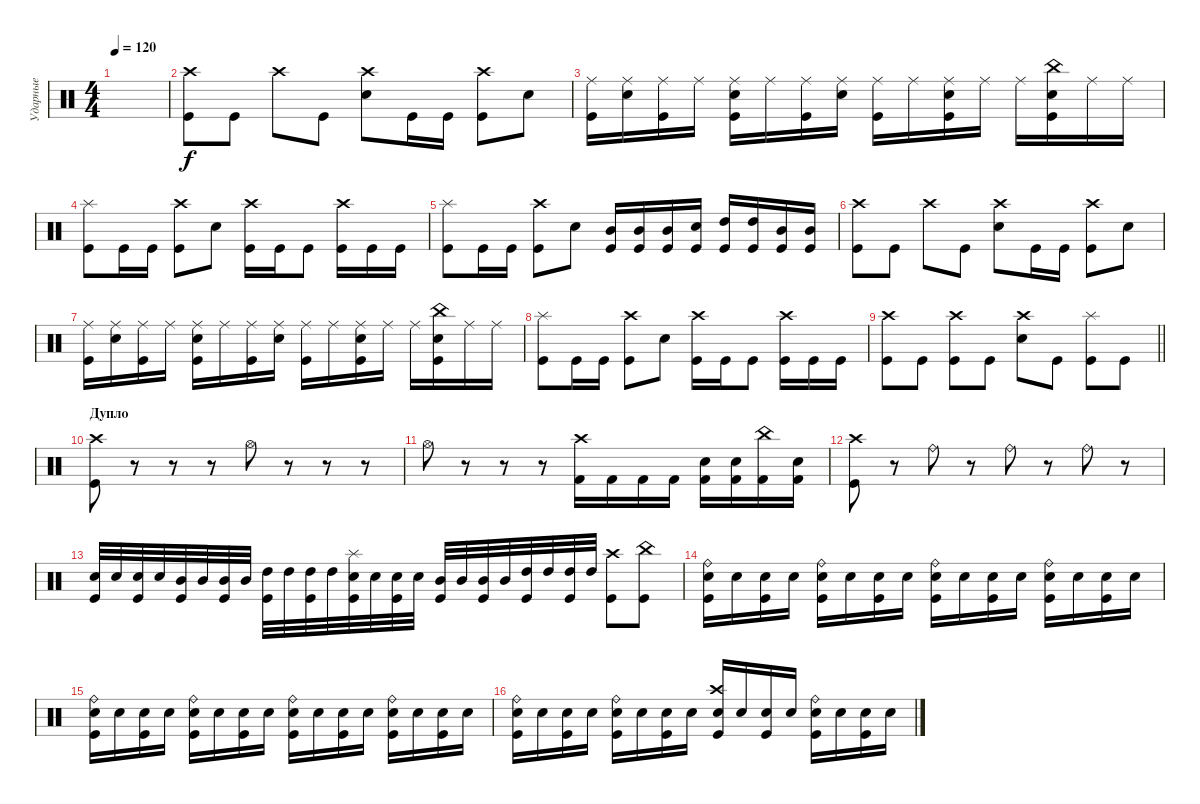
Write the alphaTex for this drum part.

\track ("Ударные" "Ударные") {instrument percussion}
\staff {score}
\articulation defaults
\ts (4 4)
\tempo 120
\clef neutral
\ks c
|
("Kick (hit)" "Crash high (hit)").8 "Kick (hit)".8 "Crash high (hit)".8 "Kick (hit)".8 ("Snare (hit) 2" "Crash high (hit)").8 "Kick (hit)".16 "Kick (hit)".16 ("Kick (hit)" "Crash high (hit)").8 "Snare (hit) 2".8 |
("Ride (middle)" "Kick (hit)").16 ("Snare (hit) 2" "Ride (middle)").16 ("Ride (middle)" "Kick (hit)").16 "Ride (middle)".16 ("Snare (hit) 2" "Ride (middle)" "Kick (hit)").16 "Ride (middle)".16 ("Ride (middle)" "Kick (hit)").16 ("Snare (hit) 2" "Ride (middle)").16 ("Ride (middle)" "Kick (hit)").16 "Ride (middle)".16 ("Snare (hit) 2" "Ride (middle)" "Kick (hit)").16 "Ride (middle)".16 "Ride (middle)".16 ("Snare (hit) 2" "China (hit)" "Kick (hit)").16 "Ride (middle)".16 "Ride (middle)".16 |
("Kick (hit)" "Splash (hit)").8 "Kick (hit)".16 "Kick (hit)".16 ("Kick (hit)" "Crash high (hit)").8 "Snare (hit) 2".8 ("Kick (hit)" "Crash high (hit)").16 "Kick (hit)".16 "Kick (hit)".8 ("Kick (hit)" "Crash high (hit)").16 "Kick (hit)".16 "Kick (hit)".16 |
("Kick (hit)" "Splash (hit)").8 "Kick (hit)".16 "Kick (hit)".16 ("Kick (hit)" "Crash high (hit)").8 "Snare (hit) 2".8 ("Kick (hit)" "Mid Tom (hit)").16 ("Kick (hit)" "Mid Tom (hit)").16 ("Kick (hit)" "Mid Tom (hit)").16 ("Kick (hit)" "Snare (hit) 2").16 ("Kick (hit)" "High Tom (hit)").16 ("Kick (hit)" "High Tom (hit)").16 ("Kick (hit)" "Mid Tom (hit)").16 ("Kick (hit)" "Mid Tom (hit)").16 |
("Kick (hit)" "Crash high (hit)").8 "Kick (hit)".8 "Crash high (hit)".8 "Kick (hit)".8 ("Snare (hit) 2" "Crash high (hit)").8 "Kick (hit)".16 "Kick (hit)".16 ("Kick (hit)" "Crash high (hit)").8 "Snare (hit) 2".8 |
("Ride (middle)" "Kick (hit)").16 ("Snare (hit) 2" "Ride (middle)").16 ("Ride (middle)" "Kick (hit)").16 "Ride (middle)".16 ("Snare (hit) 2" "Ride (middle)" "Kick (hit)").16 "Ride (middle)".16 ("Ride (middle)" "Kick (hit)").16 ("Snare (hit) 2" "Ride (middle)").16 ("Ride (middle)" "Kick (hit)").16 "Ride (middle)".16 ("Snare (hit) 2" "Ride (middle)" "Kick (hit)").16 "Ride (middle)".16 "Ride (middle)".16 ("Snare (hit) 2" "China (hit)" "Kick (hit)").16 "Ride (middle)".16 "Ride (middle)".16 |
("Kick (hit)" "Splash (hit)").8 "Kick (hit)".16 "Kick (hit)".16 ("Kick (hit)" "Crash high (hit)").8 "Snare (hit) 2".8 ("Kick (hit)" "Crash high (hit)").16 "Kick (hit)".16 "Kick (hit)".8 ("Kick (hit)" "Crash high (hit)").16 "Kick (hit)".16 "Kick (hit)".16 |
\barLineRight lightlight
("Kick (hit)" "Crash high (hit)").8 "Kick (hit)".8 ("Kick (hit)" "Crash high (hit)").8 "Kick (hit)".8 ("Snare (hit) 2" "Crash high (hit)").8 "Kick (hit)".8 ("Kick (hit)" "Splash (hit)").8 "Kick (hit)".8 |
\section ("" "Дупло")
("Crash high (hit)" "Kick (hit)").8 r.8 r.8 r.8 "Hi-Hat (open)".8 r.8 r.8 r.8 |
"Hi-Hat (open)".8 r.8 r.8 r.8 ("Kick (hit) 2" "Crash high (hit)").16 "Kick (hit) 2".16 "Kick (hit) 2".16 "Kick (hit) 2".16 ("Kick (hit) 2" "Snare (hit) 2").16 ("Kick (hit) 2" "Snare (hit) 2").16 ("Kick (hit) 2" "China (hit)").16 ("Kick (hit) 2" "Snare (hit) 2").16 |
("Crash high (hit)" "Kick (hit)").8 r.8 "Ride (bell)".8 r.8 "Ride (bell)".8 r.8 "Ride (bell)".8 r.8 |
("Kick (hit)" "Snare (hit) 2").32 "Snare (hit) 2".32 ("Kick (hit)" "Snare (hit) 2").32 "Snare (hit) 2".32 ("Kick (hit)" "Mid Tom (hit)").32 "Mid Tom (hit)".32 ("Kick (hit)" "Mid Tom (hit)").32 "Mid Tom (hit)".32 ("Kick (hit)" "High Tom (hit)").32 "High Tom (hit)".32 ("Kick (hit)" "High Tom (hit)").32 "High Tom (hit)".32 ("Kick (hit)" "Snare (hit) 2" "Splash (hit)").32 "Snare (hit) 2".32 ("Kick (hit)" "Snare (hit) 2").32 "Snare (hit) 2".32 ("Kick (hit)" "Mid Tom (hit)").32 "Mid Tom (hit)".32 ("Kick (hit)" "Mid Tom (hit)").32 "Mid Tom (hit)".32 ("Kick (hit)" "High Tom (hit)").32 "High Tom (hit)".32 ("Kick (hit)" "High Tom (hit)").32 "High Tom (hit)".32 ("Kick (hit)" "Crash high (hit)").8 ("Kick (hit)" "China (hit)").8 |
("Ride (bell)" "Snare (hit) 2" "Kick (hit)").16 "Snare (hit) 2".16 ("Snare (hit) 2" "Kick (hit)").16 "Snare (hit) 2".16 ("Ride (bell)" "Snare (hit) 2" "Kick (hit)").16 "Snare (hit) 2".16 ("Snare (hit) 2" "Kick (hit)").16 "Snare (hit) 2".16 ("Ride (bell)" "Snare (hit) 2" "Kick (hit)").16 "Snare (hit) 2".16 ("Snare (hit) 2" "Kick (hit)").16 "Snare (hit) 2".16 ("Ride (bell)" "Snare (hit) 2" "Kick (hit)").16 "Snare (hit) 2".16 ("Snare (hit) 2" "Kick (hit)").16 "Snare (hit) 2".16 |
("Ride (bell)" "Snare (hit) 2" "Kick (hit)").16 "Snare (hit) 2".16 ("Snare (hit) 2" "Kick (hit)").16 "Snare (hit) 2".16 ("Ride (bell)" "Snare (hit) 2" "Kick (hit)").16 "Snare (hit) 2".16 ("Snare (hit) 2" "Kick (hit)").16 "Snare (hit) 2".16 ("Ride (bell)" "Snare (hit) 2" "Kick (hit)").16 "Snare (hit) 2".16 ("Snare (hit) 2" "Kick (hit)").16 "Snare (hit) 2".16 ("Ride (bell)" "Snare (hit) 2" "Kick (hit)").16 "Snare (hit) 2".16 ("Snare (hit) 2" "Kick (hit)").16 "Snare (hit) 2".16 |
("Ride (bell)" "Snare (hit) 2" "Kick (hit)").16 "Snare (hit) 2".16 ("Snare (hit) 2" "Kick (hit)").16 "Snare (hit) 2".16 ("Ride (bell)" "Snare (hit) 2" "Kick (hit)").16 "Snare (hit) 2".16 ("Snare (hit) 2" "Kick (hit)").16 "Snare (hit) 2".16 ("Crash high (hit)" "Snare (hit) 2" "Kick (hit)").16 "Snare (hit) 2".16 ("Snare (hit) 2" "Kick (hit)").16 "Snare (hit) 2".16 ("Ride (bell)" "Snare (hit) 2" "Kick (hit)").16 "Snare (hit) 2".16 ("Snare (hit) 2" "Kick (hit)").16 "Snare (hit) 2".16
